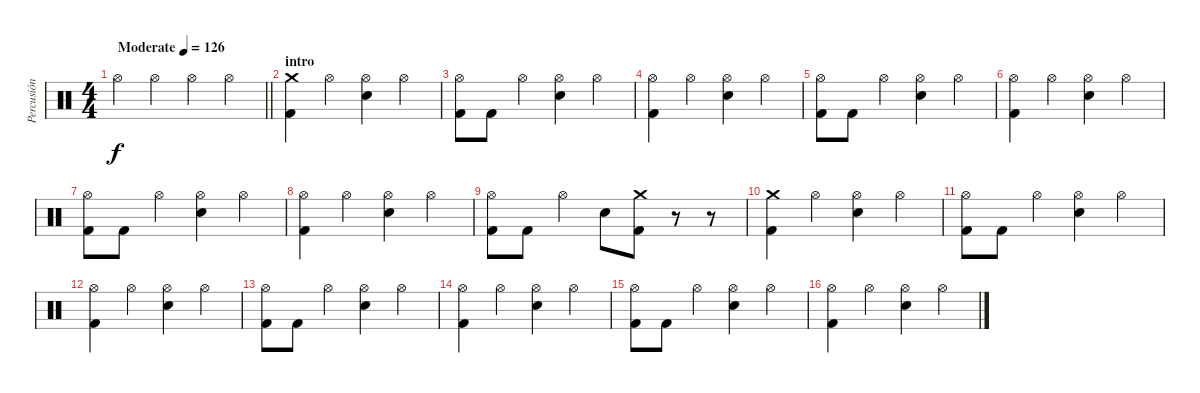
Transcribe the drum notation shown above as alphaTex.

\track ("Percusión" "Percusión") {instrument percussion}
\staff {score}
\articulation defaults
\ts (4 4)
\tempo (126 "Moderate")
\clef neutral
\barLineRight lightlight
\ks c "Hi-Hat (open)".4{dy f} "Hi-Hat (open)".4 "Hi-Hat (open)".4 "Hi-Hat (open)".4
|
\section ("" "intro")
("Crash medium (hit)" "Kick (hit) 2").4 "Hi-Hat (open)".4 ("Hi-Hat (open)" "Electric Snare (hit)").4 "Hi-Hat (open)".4 |
("Hi-Hat (open)" "Kick (hit) 2").8 "Kick (hit) 2".8 "Hi-Hat (open)".4 ("Hi-Hat (open)" "Electric Snare (hit)").4 "Hi-Hat (open)".4 |
("Hi-Hat (open)" "Kick (hit) 2").4 "Hi-Hat (open)".4 ("Hi-Hat (open)" "Electric Snare (hit)").4 "Hi-Hat (open)".4 |
("Hi-Hat (open)" "Kick (hit) 2").8 "Kick (hit) 2".8 "Hi-Hat (open)".4 ("Hi-Hat (open)" "Electric Snare (hit)").4 "Hi-Hat (open)".4 |
("Hi-Hat (open)" "Kick (hit) 2").4 "Hi-Hat (open)".4 ("Hi-Hat (open)" "Electric Snare (hit)").4 "Hi-Hat (open)".4 |
("Hi-Hat (open)" "Kick (hit) 2").8 "Kick (hit) 2".8 "Hi-Hat (open)".4 ("Hi-Hat (open)" "Electric Snare (hit)").4 "Hi-Hat (open)".4 |
("Hi-Hat (open)" "Kick (hit) 2").4 "Hi-Hat (open)".4 ("Hi-Hat (open)" "Electric Snare (hit)").4 "Hi-Hat (open)".4 |
("Hi-Hat (open)" "Kick (hit) 2").8 "Kick (hit) 2".8 "Hi-Hat (open)".4 "Electric Snare (hit)".8 ("Crash medium (hit)" "Kick (hit) 2").8 r.8{volume 0} r.8 |
("Crash medium (hit)" "Kick (hit) 2").4{volume 16} "Hi-Hat (open)".4 ("Hi-Hat (open)" "Electric Snare (hit)").4 "Hi-Hat (open)".4 |
("Hi-Hat (open)" "Kick (hit) 2").8 "Kick (hit) 2".8 "Hi-Hat (open)".4 ("Hi-Hat (open)" "Electric Snare (hit)").4 "Hi-Hat (open)".4 |
("Hi-Hat (open)" "Kick (hit) 2").4 "Hi-Hat (open)".4 ("Hi-Hat (open)" "Electric Snare (hit)").4 "Hi-Hat (open)".4 |
("Hi-Hat (open)" "Kick (hit) 2").8 "Kick (hit) 2".8 "Hi-Hat (open)".4 ("Hi-Hat (open)" "Electric Snare (hit)").4 "Hi-Hat (open)".4 |
("Hi-Hat (open)" "Kick (hit) 2").4 "Hi-Hat (open)".4 ("Hi-Hat (open)" "Electric Snare (hit)").4 "Hi-Hat (open)".4 |
("Hi-Hat (open)" "Kick (hit) 2").8 "Kick (hit) 2".8 "Hi-Hat (open)".4 ("Hi-Hat (open)" "Electric Snare (hit)").4 "Hi-Hat (open)".4 |
("Hi-Hat (open)" "Kick (hit) 2").4 "Hi-Hat (open)".4 ("Hi-Hat (open)" "Electric Snare (hit)").4 "Hi-Hat (open)".4
